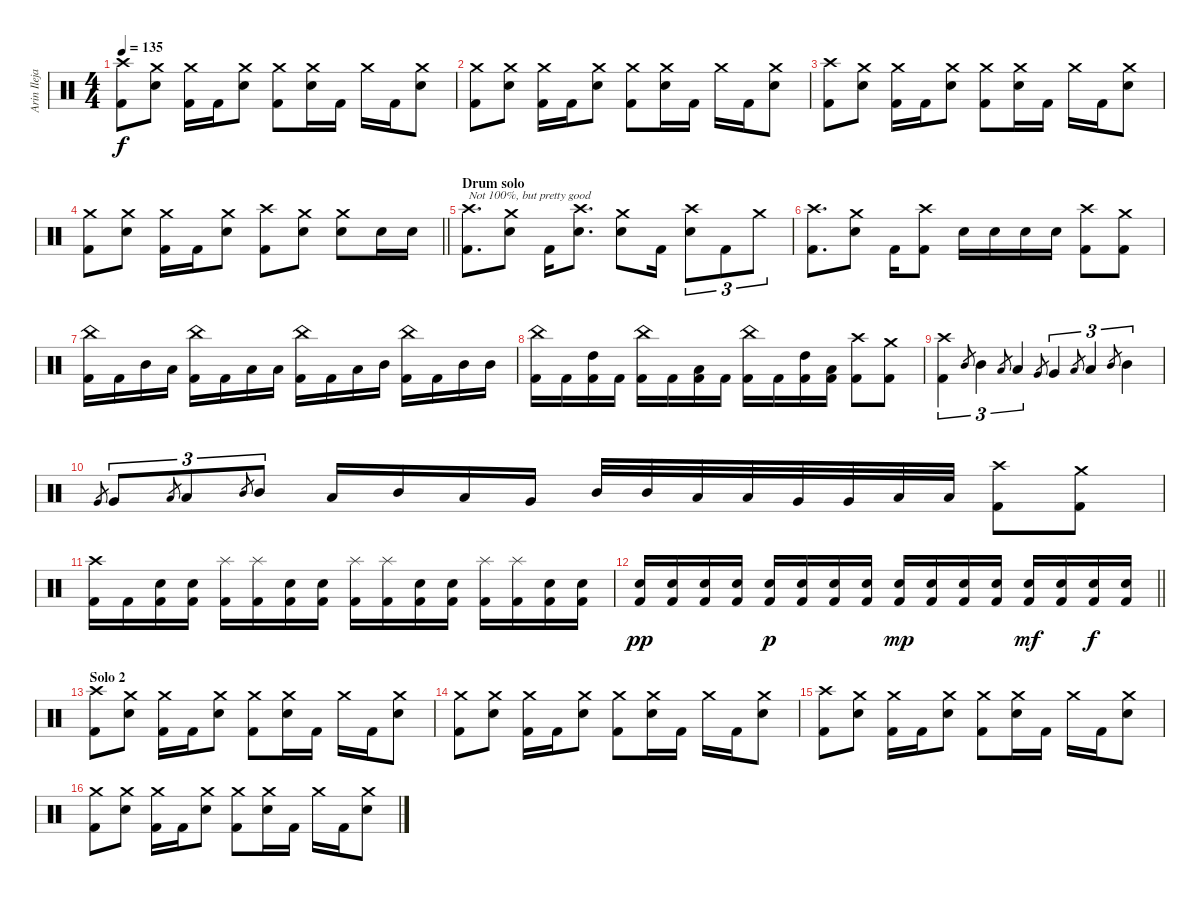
\track ("Arin Ilejay" "Arin Ileja") {instrument percussion}
\staff {score}
\articulation defaults
\ts (4 4)
\tempo 135
\clef neutral
\ks c
("Crash high (hit)" "Kick (hit) 2").8{dy f} ("Crash medium (hit)" "Electric Snare (hit)").8 ("Crash medium (hit)" "Kick (hit) 2").16 "Kick (hit) 2".16 ("Crash medium (hit)" "Electric Snare (hit)").8 ("Crash medium (hit)" "Kick (hit) 2").8 ("Crash medium (hit)" "Electric Snare (hit)").16 "Kick (hit) 2".16 "Crash medium (hit)".16 "Kick (hit) 2".16 ("Crash medium (hit)" "Electric Snare (hit)").8 |
("Crash medium (hit)" "Kick (hit) 2").8 ("Crash medium (hit)" "Electric Snare (hit)").8 ("Crash medium (hit)" "Kick (hit) 2").16 "Kick (hit) 2".16 ("Crash medium (hit)" "Electric Snare (hit)").8 ("Crash medium (hit)" "Kick (hit) 2").8 ("Crash medium (hit)" "Electric Snare (hit)").16 "Kick (hit) 2".16 "Crash medium (hit)".16 "Kick (hit) 2".16 ("Crash medium (hit)" "Electric Snare (hit)").8 |
("Crash high (hit)" "Kick (hit) 2").8 ("Crash medium (hit)" "Electric Snare (hit)").8 ("Crash medium (hit)" "Kick (hit) 2").16 "Kick (hit) 2".16 ("Crash medium (hit)" "Electric Snare (hit)").8 ("Crash medium (hit)" "Kick (hit) 2").8 ("Crash medium (hit)" "Electric Snare (hit)").16 "Kick (hit) 2".16 "Crash medium (hit)".16 "Kick (hit) 2".16 ("Crash medium (hit)" "Electric Snare (hit)").8 |
\barLineRight lightlight
("Crash medium (hit)" "Kick (hit) 2").8 ("Crash medium (hit)" "Electric Snare (hit)").8 ("Crash medium (hit)" "Kick (hit) 2").16 "Kick (hit) 2".16 ("Crash medium (hit)" "Electric Snare (hit)").8 ("Crash high (hit)" "Kick (hit) 2").8 ("Crash medium (hit)" "Electric Snare (hit)").8 ("Crash medium (hit)" "Electric Snare (hit)").8 "Electric Snare (hit)".16 "Electric Snare (hit)".16 |
\section ("" "Drum solo")
("Crash high (hit)" "Kick (hit) 2").8{d txt "Not 100%, but pretty good"} ("Crash medium (hit)" "Electric Snare (hit)").8 "Kick (hit) 2".16 ("Crash high (hit)" "Electric Snare (hit)").8{d} ("Crash medium (hit)" "Electric Snare (hit)").8 "Kick (hit) 2".16 ("Crash high (hit)" "Electric Snare (hit)").8{tu (3 2)} "Kick (hit) 2".8{tu (3 2)} "Crash medium (hit)".8{tu (3 2)} |
("Crash high (hit)" "Kick (hit) 2").8{d} ("Crash medium (hit)" "Electric Snare (hit)").8 "Kick (hit) 2".16 ("Crash high (hit)" "Kick (hit) 2").8 "Electric Snare (hit)".16 "Electric Snare (hit)".16 "Electric Snare (hit)".16 "Electric Snare (hit)".16 ("Crash high (hit)" "Kick (hit) 2").8 ("Crash medium (hit)" "Kick (hit) 2").8 |
("China (hit)" "Kick (hit) 2").16 "Kick (hit) 2".16 "Mid Tom (hit)".16 "Low Tom (hit)".16 ("China (hit)" "Kick (hit) 2").16 "Kick (hit) 2".16 "Low Tom (hit)".16 "Low Tom (hit)".16 ("China (hit)" "Kick (hit) 2").16 "Kick (hit) 2".16 "Low Tom (hit)".16 "Mid Tom (hit)".16 ("China (hit)" "Kick (hit) 2").16 "Kick (hit) 2".16 "Mid Tom (hit)".16 "Mid Tom (hit)".16 |
("China (hit)" "Kick (hit) 2").16 "Kick (hit) 2".16 ("High Tom (hit)" "Kick (hit) 2").16 "Kick (hit) 2".16 ("China (hit)" "Kick (hit) 2").16 "Kick (hit) 2".16 ("Low Tom (hit)" "Kick (hit) 2").16 "Kick (hit) 2".16 ("China (hit)" "Kick (hit) 2").16 "Kick (hit) 2".16 ("High Tom (hit)" "Kick (hit) 2").16 ("Low Tom (hit)" "Kick (hit) 2").16 ("Crash high (hit)" "Kick (hit) 2").8 ("Crash medium (hit)" "Kick (hit) 2").8 |
("Crash high (hit)" "Kick (hit) 2").4{tu (3 2)} "Mid Tom (hit)".8{gr} "Mid Tom (hit)".4{tu (3 2)} "Low Tom (hit)".8{gr} "Low Tom (hit)".4{tu (3 2)} "Very Low Tom (hit)".8{gr} "Very Low Tom (hit)".4{tu (3 2)} "Low Tom (hit)".8{gr} "Low Tom (hit)".4{tu (3 2)} "Mid Tom (hit)".8{gr} "Mid Tom (hit)".4{tu (3 2)} |
"Very Low Tom (hit)".8{gr} "Very Low Tom (hit)".8{tu (3 2)} "Low Tom (hit)".8{gr} "Low Tom (hit)".8{tu (3 2)} "Mid Tom (hit)".8{gr} "Mid Tom (hit)".8{tu (3 2)} "Low Tom (hit)".16 "Mid Tom (hit)".16 "Low Tom (hit)".16 "Very Low Tom (hit)".16 "Mid Tom (hit)".32 "Mid Tom (hit)".32 "Low Tom (hit)".32 "Low Tom (hit)".32 "Very Low Tom (hit)".32 "Very Low Tom (hit)".32 "Low Floor Tom (hit)".32 "Low Floor Tom (hit)".32 ("Crash high (hit)" "Kick (hit) 2").8 ("Crash medium (hit)" "Kick (hit) 2").8 |
("Crash high (hit)" "Kick (hit) 2").16 "Kick (hit) 2".16 ("Electric Snare (hit)" "Kick (hit) 2").16 ("Electric Snare (hit)" "Kick (hit) 2").16 ("Splash (hit)" "Kick (hit) 2").16 ("Splash (hit)" "Kick (hit) 2").16 ("Electric Snare (hit)" "Kick (hit) 2").16 ("Electric Snare (hit)" "Kick (hit) 2").16 ("Splash (hit)" "Kick (hit) 2").16 ("Splash (hit)" "Kick (hit) 2").16 ("Electric Snare (hit)" "Kick (hit) 2").16 ("Electric Snare (hit)" "Kick (hit) 2").16 ("Splash (hit)" "Kick (hit) 2").16 ("Splash (hit)" "Kick (hit) 2").16 ("Electric Snare (hit)" "Kick (hit) 2").16 ("Electric Snare (hit)" "Kick (hit) 2").16 |
\barLineRight lightlight
("Electric Snare (hit)" "Kick (hit) 2").16{dy pp} ("Electric Snare (hit)" "Kick (hit) 2").16 ("Electric Snare (hit)" "Kick (hit) 2").16 ("Electric Snare (hit)" "Kick (hit) 2").16 ("Electric Snare (hit)" "Kick (hit) 2").16{dy p} ("Electric Snare (hit)" "Kick (hit) 2").16 ("Electric Snare (hit)" "Kick (hit) 2").16 ("Electric Snare (hit)" "Kick (hit) 2").16 ("Electric Snare (hit)" "Kick (hit) 2").16{dy mp} ("Electric Snare (hit)" "Kick (hit) 2").16 ("Electric Snare (hit)" "Kick (hit) 2").16 ("Electric Snare (hit)" "Kick (hit) 2").16 ("Electric Snare (hit)" "Kick (hit) 2").16{dy mf} ("Electric Snare (hit)" "Kick (hit) 2").16 ("Electric Snare (hit)" "Kick (hit) 2").16{dy f} ("Electric Snare (hit)" "Kick (hit) 2").16 |
\section ("" "Solo 2")
("Crash high (hit)" "Kick (hit) 2").8 ("Crash medium (hit)" "Electric Snare (hit)").8 ("Crash medium (hit)" "Kick (hit) 2").16 "Kick (hit) 2".16 ("Crash medium (hit)" "Electric Snare (hit)").8 ("Crash medium (hit)" "Kick (hit) 2").8 ("Crash medium (hit)" "Electric Snare (hit)").16 "Kick (hit) 2".16 "Crash medium (hit)".16 "Kick (hit) 2".16 ("Crash medium (hit)" "Electric Snare (hit)").8 |
("Crash medium (hit)" "Kick (hit) 2").8 ("Crash medium (hit)" "Electric Snare (hit)").8 ("Crash medium (hit)" "Kick (hit) 2").16 "Kick (hit) 2".16 ("Crash medium (hit)" "Electric Snare (hit)").8 ("Crash medium (hit)" "Kick (hit) 2").8 ("Crash medium (hit)" "Electric Snare (hit)").16 "Kick (hit) 2".16 "Crash medium (hit)".16 "Kick (hit) 2".16 ("Crash medium (hit)" "Electric Snare (hit)").8 |
("Crash high (hit)" "Kick (hit) 2").8 ("Crash medium (hit)" "Electric Snare (hit)").8 ("Crash medium (hit)" "Kick (hit) 2").16 "Kick (hit) 2".16 ("Crash medium (hit)" "Electric Snare (hit)").8 ("Crash medium (hit)" "Kick (hit) 2").8 ("Crash medium (hit)" "Electric Snare (hit)").16 "Kick (hit) 2".16 "Crash medium (hit)".16 "Kick (hit) 2".16 ("Crash medium (hit)" "Electric Snare (hit)").8 |
("Crash medium (hit)" "Kick (hit) 2").8 ("Crash medium (hit)" "Electric Snare (hit)").8 ("Crash medium (hit)" "Kick (hit) 2").16 "Kick (hit) 2".16 ("Crash medium (hit)" "Electric Snare (hit)").8 ("Crash medium (hit)" "Kick (hit) 2").8 ("Crash medium (hit)" "Electric Snare (hit)").16 "Kick (hit) 2".16 "Crash medium (hit)".16 "Kick (hit) 2".16 ("Crash medium (hit)" "Electric Snare (hit)").8
